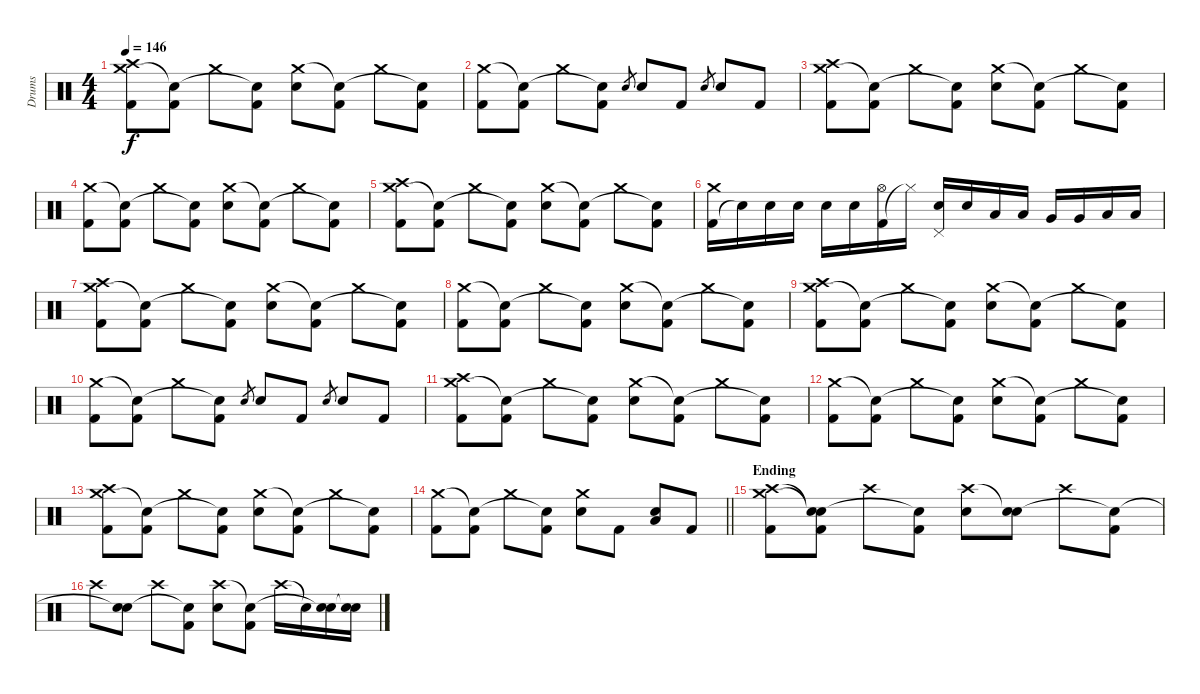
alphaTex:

\track ("Drums" "Drums") {instrument percussion}
\staff {score}
\articulation defaults
\ts (4 4)
\tempo 146
\clef neutral
\ks c
("Kick (hit) 2" "Crash medium (hit)" "Crash high (hit)").8{dy f} ("Kick (hit) 2" "Snare (hit)"{t}).8 "Crash medium (hit)".8 ("Kick (hit) 2" "Snare (hit)"{t}).8 ("Electric Snare (hit)" "Crash medium (hit)").8 ("Kick (hit) 2" "Snare (hit)"{t}).8 "Crash medium (hit)".8 ("Kick (hit) 2" "Snare (hit)"{t}).8 |
("Kick (hit) 2" "Crash medium (hit)").8 ("Kick (hit) 2" "Snare (hit)"{t}).8 "Crash medium (hit)".8 ("Kick (hit) 2" "Snare (hit)"{t}).8 "Electric Snare (hit)".8{gr} "Electric Snare (hit)".8 "Kick (hit) 2".8 "Electric Snare (hit)".8{gr} "Electric Snare (hit)".8 "Kick (hit) 2".8 |
("Kick (hit) 2" "Crash medium (hit)" "Crash high (hit)").8 ("Kick (hit) 2" "Snare (hit)"{t}).8 "Crash medium (hit)".8 ("Kick (hit) 2" "Snare (hit)"{t}).8 ("Electric Snare (hit)" "Crash medium (hit)").8 ("Kick (hit) 2" "Snare (hit)"{t}).8 "Crash medium (hit)".8 ("Kick (hit) 2" "Snare (hit)"{t}).8 |
("Kick (hit) 2" "Crash medium (hit)").8 ("Kick (hit) 2" "Snare (hit)"{t}).8 "Crash medium (hit)".8 ("Kick (hit) 2" "Snare (hit)"{t}).8 ("Electric Snare (hit)" "Crash medium (hit)").8 ("Kick (hit) 2" "Snare (hit)"{t}).8 "Crash medium (hit)".8 ("Kick (hit) 2" "Snare (hit)"{t}).8 |
("Kick (hit) 2" "Crash medium (hit)" "Crash high (hit)").8 ("Kick (hit) 2" "Snare (hit)"{t}).8 "Crash medium (hit)".8 ("Kick (hit) 2" "Snare (hit)"{t}).8 ("Electric Snare (hit)" "Crash medium (hit)").8 ("Kick (hit) 2" "Snare (hit)"{t}).8 "Crash medium (hit)".8 ("Kick (hit) 2" "Snare (hit)"{t}).8 |
("Kick (hit) 2" "Crash medium (hit)").16 "Electric Snare (hit)"{t}.16 "Electric Snare (hit)".16 "Electric Snare (hit)".16 "Electric Snare (hit)".16 "Electric Snare (hit)".16 ("Kick (hit) 2" "Hi-Hat (open)").16 "Hi-Hat (closed)"{t}.16 ("Electric Snare (hit)" "Pedal Hi-Hat (hit)").16 "Electric Snare (hit)".16 "Low Tom (hit)".16 "Low Tom (hit)".16 "Very Low Tom (hit)".16 "Very Low Tom (hit)".16 "Low Floor Tom (hit)".16 "Low Floor Tom (hit)".16 |
("Kick (hit) 2" "Crash medium (hit)" "Crash high (hit)").8 ("Kick (hit) 2" "Snare (hit)"{t}).8 "Crash medium (hit)".8 ("Kick (hit) 2" "Snare (hit)"{t}).8 ("Electric Snare (hit)" "Crash medium (hit)").8 ("Kick (hit) 2" "Snare (hit)"{t}).8 "Crash medium (hit)".8 ("Kick (hit) 2" "Snare (hit)"{t}).8 |
("Kick (hit) 2" "Crash medium (hit)").8 ("Kick (hit) 2" "Snare (hit)"{t}).8 "Crash medium (hit)".8 ("Kick (hit) 2" "Snare (hit)"{t}).8 ("Electric Snare (hit)" "Crash medium (hit)").8 ("Kick (hit) 2" "Snare (hit)"{t}).8 "Crash medium (hit)".8 ("Kick (hit) 2" "Snare (hit)"{t}).8 |
("Kick (hit) 2" "Crash medium (hit)" "Crash high (hit)").8 ("Kick (hit) 2" "Snare (hit)"{t}).8 "Crash medium (hit)".8 ("Kick (hit) 2" "Snare (hit)"{t}).8 ("Electric Snare (hit)" "Crash medium (hit)").8 ("Kick (hit) 2" "Snare (hit)"{t}).8 "Crash medium (hit)".8 ("Kick (hit) 2" "Snare (hit)"{t}).8 |
("Kick (hit) 2" "Crash medium (hit)").8 ("Kick (hit) 2" "Snare (hit)"{t}).8 "Crash medium (hit)".8 ("Kick (hit) 2" "Snare (hit)"{t}).8 "Electric Snare (hit)".8{gr} "Electric Snare (hit)".8 "Kick (hit) 2".8 "Electric Snare (hit)".8{gr} "Electric Snare (hit)".8 "Kick (hit) 2".8 |
("Kick (hit) 2" "Crash medium (hit)" "Crash high (hit)").8 ("Kick (hit) 2" "Snare (hit)"{t}).8 "Crash medium (hit)".8 ("Kick (hit) 2" "Snare (hit)"{t}).8 ("Electric Snare (hit)" "Crash medium (hit)").8 ("Kick (hit) 2" "Snare (hit)"{t}).8 "Crash medium (hit)".8 ("Kick (hit) 2" "Snare (hit)"{t}).8 |
("Kick (hit) 2" "Crash medium (hit)").8 ("Kick (hit) 2" "Snare (hit)"{t}).8 "Crash medium (hit)".8 ("Kick (hit) 2" "Snare (hit)"{t}).8 ("Electric Snare (hit)" "Crash medium (hit)").8 ("Kick (hit) 2" "Snare (hit)"{t}).8 "Crash medium (hit)".8 ("Kick (hit) 2" "Snare (hit)"{t}).8 |
("Kick (hit) 2" "Crash medium (hit)" "Crash high (hit)").8 ("Kick (hit) 2" "Snare (hit)"{t}).8 "Crash medium (hit)".8 ("Kick (hit) 2" "Snare (hit)"{t}).8 ("Electric Snare (hit)" "Crash medium (hit)").8 ("Kick (hit) 2" "Snare (hit)"{t}).8 "Crash medium (hit)".8 ("Kick (hit) 2" "Snare (hit)"{t}).8 |
\barLineRight lightlight
("Kick (hit) 2" "Crash medium (hit)").8 ("Kick (hit) 2" "Snare (hit)"{t}).8 "Crash medium (hit)".8 ("Kick (hit) 2" "Snare (hit)"{t}).8 ("Electric Snare (hit)" "Crash medium (hit)").8 "Kick (hit) 2".8 ("Electric Snare (hit)" "Low Floor Tom (hit)").8 "Kick (hit) 2".8 |
\section ("" "Ending")
("Kick (hit) 2" "Crash medium (hit)" "Crash high (hit)").8 ("Kick (hit) 2" "Snare (hit)"{t} "Snare (hit)"{t}).8 "Crash high (hit)".8 ("Kick (hit) 2" "Snare (hit)"{t}).8 ("Electric Snare (hit)" "Crash high (hit)").8 ("Electric Snare (hit)" "Snare (hit)"{t}).8 "Crash high (hit)".8 ("Kick (hit) 2" "Snare (hit)"{t}).8 |
"Crash high (hit)".8 ("Electric Snare (hit)" "Snare (hit)"{t}).8 "Crash high (hit)".8 ("Kick (hit) 2" "Snare (hit)"{t}).8 ("Electric Snare (hit)" "Crash high (hit)").8 ("Kick (hit) 2" "Snare (hit)"{t}).8 "Crash high (hit)".16 "Snare (hit)"{t}.16 ("Electric Snare (hit)" "Snare (hit)"{t}).16 ("Electric Snare (hit)" "Snare (hit)"{t}).16
